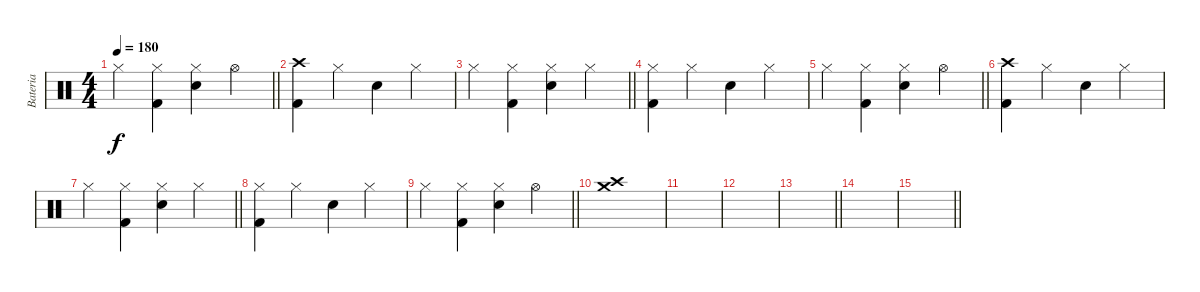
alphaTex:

\track ("Bateria" "Bateria") {instrument percussion}
\staff {score}
\articulation defaults
\ts (4 4)
\tempo 180
\clef neutral
\barLineRight lightlight
\ks c "Hi-Hat (closed)".4{dy f}
("Hi-Hat (closed)" "Kick (hit) 2").4 ("Hi-Hat (closed)" "Electric Snare (hit)").4 "Hi-Hat (open)".4 |
("Crash high (hit)" "Kick (hit) 2").4 "Hi-Hat (closed)".4 "Electric Snare (hit)".4 "Hi-Hat (closed)".4 |
\barLineRight lightlight "Hi-Hat (closed)".4
("Hi-Hat (closed)" "Kick (hit) 2").4 ("Hi-Hat (closed)" "Electric Snare (hit)").4 "Hi-Hat (closed)".4 |
("Hi-Hat (closed)" "Kick (hit) 2").4 "Hi-Hat (closed)".4 "Electric Snare (hit)".4 "Hi-Hat (closed)".4 |
\barLineRight lightlight "Hi-Hat (closed)".4
("Hi-Hat (closed)" "Kick (hit) 2").4 ("Hi-Hat (closed)" "Electric Snare (hit)").4 "Hi-Hat (open)".4 |
("Crash high (hit)" "Kick (hit) 2").4 "Hi-Hat (closed)".4 "Electric Snare (hit)".4 "Hi-Hat (closed)".4 |
\barLineRight lightlight "Hi-Hat (closed)".4
("Hi-Hat (closed)" "Kick (hit) 2").4 ("Hi-Hat (closed)" "Electric Snare (hit)").4 "Hi-Hat (closed)".4 |
("Hi-Hat (closed)" "Kick (hit) 2").4 "Hi-Hat (closed)".4 "Electric Snare (hit)".4 "Hi-Hat (closed)".4 |
\barLineRight lightlight "Hi-Hat (closed)".4
("Hi-Hat (closed)" "Kick (hit) 2").4 ("Hi-Hat (closed)" "Electric Snare (hit)").4 "Hi-Hat (open)".4 |
("Crash high (hit)" "Crash medium (hit)").1 |
|
|
\barLineRight lightlight
|
|
\barLineRight lightlight
